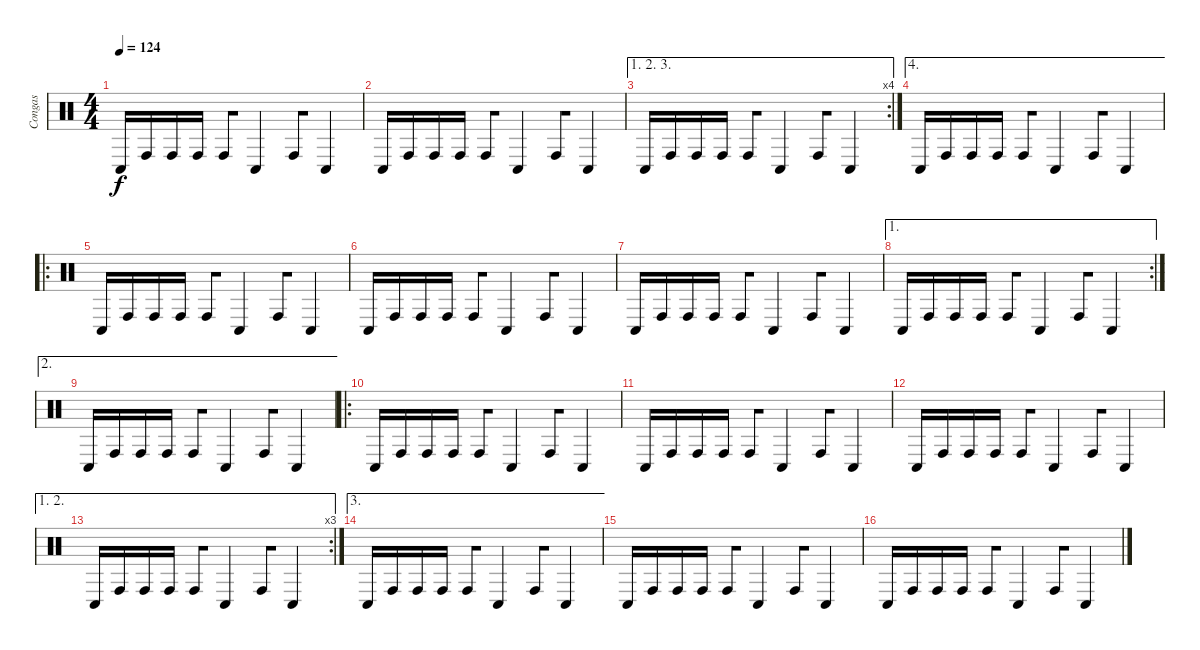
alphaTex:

\track ("Congas" "Congas") {instrument percussion bank 2}
\staff {score}
\articulation defaults
\ts (4 4)
\tempo 124
\clef neutral
\ks c "Conga low (hit)".16{dy f} "Conga high (hit)".16 "Conga high (hit)".16 "Conga high (hit)".16 "Conga high (hit)".8{beam merge} "Conga low (hit)".4 "Conga high (hit)".8{beam merge} "Conga low (hit)".4
|
"Conga low (hit)".16 "Conga high (hit)".16 "Conga high (hit)".16 "Conga high (hit)".16 "Conga high (hit)".8{beam merge} "Conga low (hit)".4 "Conga high (hit)".8{beam merge} "Conga low (hit)".4 |
\ae (1 2 3)
\rc 4 "Conga low (hit)".16 "Conga high (hit)".16 "Conga high (hit)".16 "Conga high (hit)".16 "Conga high (hit)".8{beam merge} "Conga low (hit)".4 "Conga high (hit)".8{beam merge} "Conga low (hit)".4
|
\ae 4 "Conga low (hit)".16 "Conga high (hit)".16 "Conga high (hit)".16 "Conga high (hit)".16 "Conga high (hit)".8{beam merge} "Conga low (hit)".4 "Conga high (hit)".8{beam merge} "Conga low (hit)".4
|
\ro "Conga low (hit)".16 "Conga high (hit)".16 "Conga high (hit)".16 "Conga high (hit)".16 "Conga high (hit)".8{beam merge} "Conga low (hit)".4 "Conga high (hit)".8{beam merge} "Conga low (hit)".4
|
"Conga low (hit)".16 "Conga high (hit)".16 "Conga high (hit)".16 "Conga high (hit)".16 "Conga high (hit)".8{beam merge} "Conga low (hit)".4 "Conga high (hit)".8{beam merge} "Conga low (hit)".4 |
"Conga low (hit)".16 "Conga high (hit)".16 "Conga high (hit)".16 "Conga high (hit)".16 "Conga high (hit)".8{beam merge} "Conga low (hit)".4 "Conga high (hit)".8{beam merge} "Conga low (hit)".4 |
\ae 1
\rc 2 "Conga low (hit)".16 "Conga high (hit)".16 "Conga high (hit)".16 "Conga high (hit)".16 "Conga high (hit)".8{beam merge} "Conga low (hit)".4 "Conga high (hit)".8{beam merge} "Conga low (hit)".4
|
\ae 2 "Conga low (hit)".16 "Conga high (hit)".16 "Conga high (hit)".16 "Conga high (hit)".16 "Conga high (hit)".8{beam merge} "Conga low (hit)".4 "Conga high (hit)".8{beam merge} "Conga low (hit)".4
|
\ro "Conga low (hit)".16 "Conga high (hit)".16 "Conga high (hit)".16 "Conga high (hit)".16 "Conga high (hit)".8{beam merge} "Conga low (hit)".4 "Conga high (hit)".8{beam merge} "Conga low (hit)".4
|
"Conga low (hit)".16 "Conga high (hit)".16 "Conga high (hit)".16 "Conga high (hit)".16 "Conga high (hit)".8{beam merge} "Conga low (hit)".4 "Conga high (hit)".8{beam merge} "Conga low (hit)".4 |
"Conga low (hit)".16 "Conga high (hit)".16 "Conga high (hit)".16 "Conga high (hit)".16 "Conga high (hit)".8{beam merge} "Conga low (hit)".4 "Conga high (hit)".8{beam merge} "Conga low (hit)".4 |
\ae (1 2)
\rc 3 "Conga low (hit)".16 "Conga high (hit)".16 "Conga high (hit)".16 "Conga high (hit)".16 "Conga high (hit)".8{beam merge} "Conga low (hit)".4 "Conga high (hit)".8{beam merge} "Conga low (hit)".4
|
\ae 3 "Conga low (hit)".16 "Conga high (hit)".16 "Conga high (hit)".16 "Conga high (hit)".16 "Conga high (hit)".8{beam merge} "Conga low (hit)".4 "Conga high (hit)".8{beam merge} "Conga low (hit)".4
|
"Conga low (hit)".16 "Conga high (hit)".16 "Conga high (hit)".16 "Conga high (hit)".16 "Conga high (hit)".8{beam merge} "Conga low (hit)".4 "Conga high (hit)".8{beam merge} "Conga low (hit)".4 |
"Conga low (hit)".16 "Conga high (hit)".16 "Conga high (hit)".16 "Conga high (hit)".16 "Conga high (hit)".8{beam merge} "Conga low (hit)".4 "Conga high (hit)".8{beam merge} "Conga low (hit)".4
